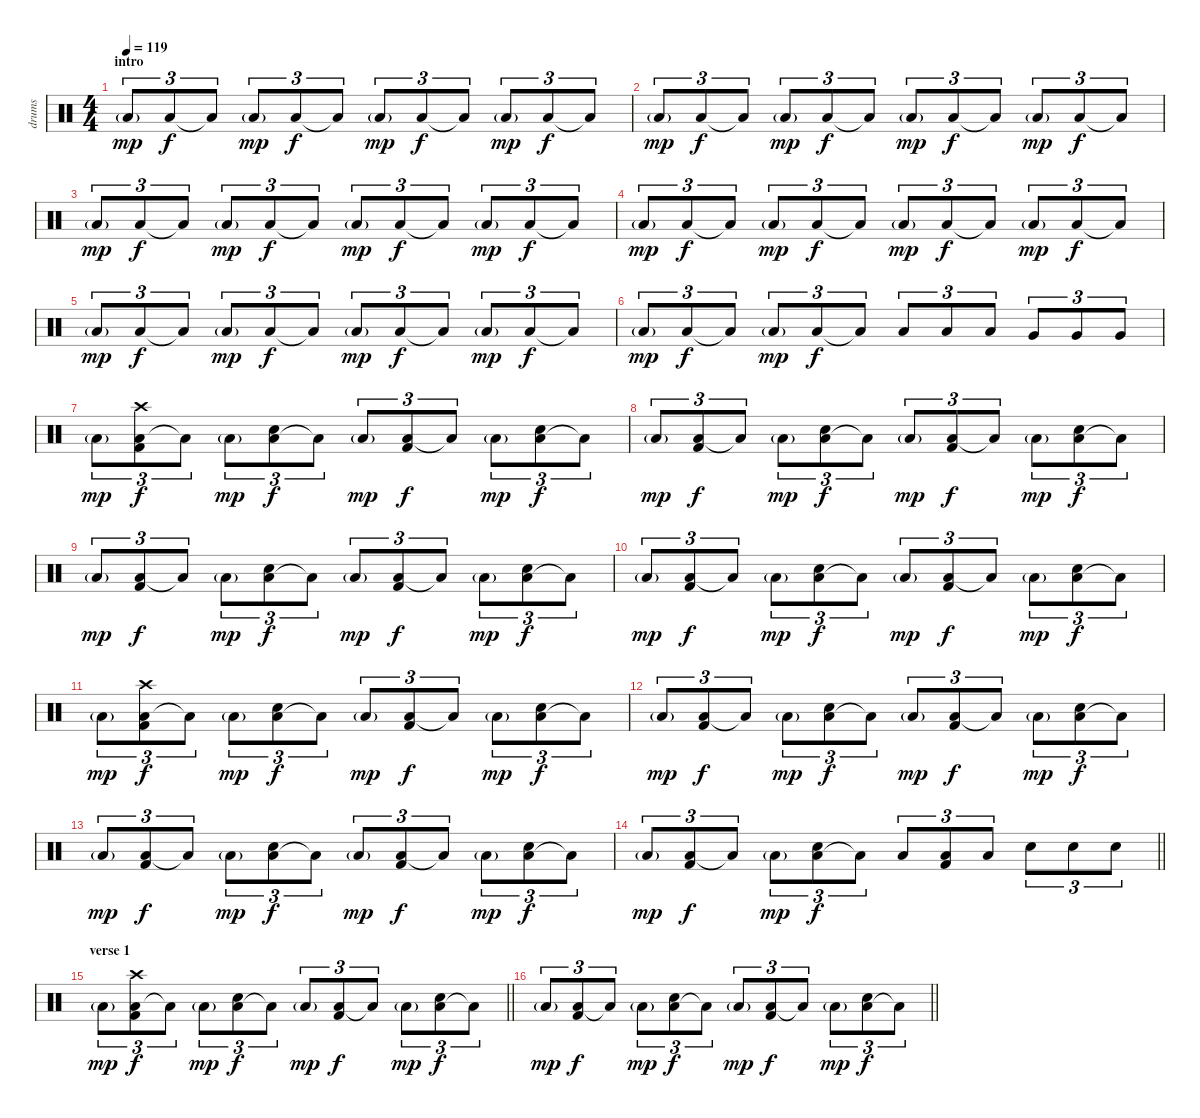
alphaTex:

\track ("drums" "drums") {instrument percussion}
\staff {score}
\articulation defaults
\ts (4 4)
\section ("" "intro")
\tempo 119
\clef neutral
\ks c "Low Floor Tom (hit)"{g}.8{tu (3 2) dy mp} "Low Floor Tom (hit)".8{tu (3 2) dy f} "Low Floor Tom (hit)"{t}.8{tu (3 2)} "Low Floor Tom (hit)"{g}.8{tu (3 2) dy mp} "Low Floor Tom (hit)".8{tu (3 2) dy f} "Low Floor Tom (hit)"{t}.8{tu (3 2)} "Low Floor Tom (hit)"{g}.8{tu (3 2) dy mp} "Low Floor Tom (hit)".8{tu (3 2) dy f} "Low Floor Tom (hit)"{t}.8{tu (3 2)} "Low Floor Tom (hit)"{g}.8{tu (3 2) dy mp} "Low Floor Tom (hit)".8{tu (3 2) dy f} "Low Floor Tom (hit)"{t}.8{tu (3 2)}
|
"Low Floor Tom (hit)"{g}.8{tu (3 2) dy mp} "Low Floor Tom (hit)".8{tu (3 2) dy f} "Low Floor Tom (hit)"{t}.8{tu (3 2)} "Low Floor Tom (hit)"{g}.8{tu (3 2) dy mp} "Low Floor Tom (hit)".8{tu (3 2) dy f} "Low Floor Tom (hit)"{t}.8{tu (3 2)} "Low Floor Tom (hit)"{g}.8{tu (3 2) dy mp} "Low Floor Tom (hit)".8{tu (3 2) dy f} "Low Floor Tom (hit)"{t}.8{tu (3 2)} "Low Floor Tom (hit)"{g}.8{tu (3 2) dy mp} "Low Floor Tom (hit)".8{tu (3 2) dy f} "Low Floor Tom (hit)"{t}.8{tu (3 2)} |
"Low Floor Tom (hit)"{g}.8{tu (3 2) dy mp} "Low Floor Tom (hit)".8{tu (3 2) dy f} "Low Floor Tom (hit)"{t}.8{tu (3 2)} "Low Floor Tom (hit)"{g}.8{tu (3 2) dy mp} "Low Floor Tom (hit)".8{tu (3 2) dy f} "Low Floor Tom (hit)"{t}.8{tu (3 2)} "Low Floor Tom (hit)"{g}.8{tu (3 2) dy mp} "Low Floor Tom (hit)".8{tu (3 2) dy f} "Low Floor Tom (hit)"{t}.8{tu (3 2)} "Low Floor Tom (hit)"{g}.8{tu (3 2) dy mp} "Low Floor Tom (hit)".8{tu (3 2) dy f} "Low Floor Tom (hit)"{t}.8{tu (3 2)} |
"Low Floor Tom (hit)"{g}.8{tu (3 2) dy mp} "Low Floor Tom (hit)".8{tu (3 2) dy f} "Low Floor Tom (hit)"{t}.8{tu (3 2)} "Low Floor Tom (hit)"{g}.8{tu (3 2) dy mp} "Low Floor Tom (hit)".8{tu (3 2) dy f} "Low Floor Tom (hit)"{t}.8{tu (3 2)} "Low Floor Tom (hit)"{g}.8{tu (3 2) dy mp} "Low Floor Tom (hit)".8{tu (3 2) dy f} "Low Floor Tom (hit)"{t}.8{tu (3 2)} "Low Floor Tom (hit)"{g}.8{tu (3 2) dy mp} "Low Floor Tom (hit)".8{tu (3 2) dy f} "Low Floor Tom (hit)"{t}.8{tu (3 2)} |
"Low Floor Tom (hit)"{g}.8{tu (3 2) dy mp} "Low Floor Tom (hit)".8{tu (3 2) dy f} "Low Floor Tom (hit)"{t}.8{tu (3 2)} "Low Floor Tom (hit)"{g}.8{tu (3 2) dy mp} "Low Floor Tom (hit)".8{tu (3 2) dy f} "Low Floor Tom (hit)"{t}.8{tu (3 2)} "Low Floor Tom (hit)"{g}.8{tu (3 2) dy mp} "Low Floor Tom (hit)".8{tu (3 2) dy f} "Low Floor Tom (hit)"{t}.8{tu (3 2)} "Low Floor Tom (hit)"{g}.8{tu (3 2) dy mp} "Low Floor Tom (hit)".8{tu (3 2) dy f} "Low Floor Tom (hit)"{t}.8{tu (3 2)} |
"Low Floor Tom (hit)"{g}.8{tu (3 2) dy mp} "Low Floor Tom (hit)".8{tu (3 2) dy f} "Low Floor Tom (hit)"{t}.8{tu (3 2)} "Low Floor Tom (hit)"{g}.8{tu (3 2) dy mp} "Low Floor Tom (hit)".8{tu (3 2) dy f} "Low Floor Tom (hit)"{t}.8{tu (3 2)} "Low Floor Tom (hit)".8{tu (3 2)} "Low Floor Tom (hit)".8{tu (3 2)} "Low Floor Tom (hit)".8{tu (3 2)} "Very Low Tom (hit)".8{tu (3 2)} "Very Low Tom (hit)".8{tu (3 2)} "Very Low Tom (hit)".8{tu (3 2)} |
"Low Floor Tom (hit)"{g}.8{tu (3 2) dy mp} ("Low Floor Tom (hit)" "Kick (hit) 2" "Crash high (hit)").8{tu (3 2) dy f} "Low Floor Tom (hit)"{t}.8{tu (3 2)} "Low Floor Tom (hit)"{g}.8{tu (3 2) dy mp} ("Low Floor Tom (hit)" "Electric Snare (hit)").8{tu (3 2) dy f} "Low Floor Tom (hit)"{t}.8{tu (3 2)} "Low Floor Tom (hit)"{g}.8{tu (3 2) dy mp} ("Low Floor Tom (hit)" "Kick (hit) 2").8{tu (3 2) dy f} "Low Floor Tom (hit)"{t}.8{tu (3 2)} "Low Floor Tom (hit)"{g}.8{tu (3 2) dy mp} ("Low Floor Tom (hit)" "Electric Snare (hit)").8{tu (3 2) dy f} "Low Floor Tom (hit)"{t}.8{tu (3 2)} |
"Low Floor Tom (hit)"{g}.8{tu (3 2) dy mp} ("Low Floor Tom (hit)" "Kick (hit) 2").8{tu (3 2) dy f} "Low Floor Tom (hit)"{t}.8{tu (3 2)} "Low Floor Tom (hit)"{g}.8{tu (3 2) dy mp} ("Low Floor Tom (hit)" "Electric Snare (hit)").8{tu (3 2) dy f} "Low Floor Tom (hit)"{t}.8{tu (3 2)} "Low Floor Tom (hit)"{g}.8{tu (3 2) dy mp} ("Low Floor Tom (hit)" "Kick (hit) 2").8{tu (3 2) dy f} "Low Floor Tom (hit)"{t}.8{tu (3 2)} "Low Floor Tom (hit)"{g}.8{tu (3 2) dy mp} ("Low Floor Tom (hit)" "Electric Snare (hit)").8{tu (3 2) dy f} "Low Floor Tom (hit)"{t}.8{tu (3 2)} |
"Low Floor Tom (hit)"{g}.8{tu (3 2) dy mp} ("Low Floor Tom (hit)" "Kick (hit) 2").8{tu (3 2) dy f} "Low Floor Tom (hit)"{t}.8{tu (3 2)} "Low Floor Tom (hit)"{g}.8{tu (3 2) dy mp} ("Low Floor Tom (hit)" "Electric Snare (hit)").8{tu (3 2) dy f} "Low Floor Tom (hit)"{t}.8{tu (3 2)} "Low Floor Tom (hit)"{g}.8{tu (3 2) dy mp} ("Low Floor Tom (hit)" "Kick (hit) 2").8{tu (3 2) dy f} "Low Floor Tom (hit)"{t}.8{tu (3 2)} "Low Floor Tom (hit)"{g}.8{tu (3 2) dy mp} ("Low Floor Tom (hit)" "Electric Snare (hit)").8{tu (3 2) dy f} "Low Floor Tom (hit)"{t}.8{tu (3 2)} |
"Low Floor Tom (hit)"{g}.8{tu (3 2) dy mp} ("Low Floor Tom (hit)" "Kick (hit) 2").8{tu (3 2) dy f} "Low Floor Tom (hit)"{t}.8{tu (3 2)} "Low Floor Tom (hit)"{g}.8{tu (3 2) dy mp} ("Low Floor Tom (hit)" "Electric Snare (hit)").8{tu (3 2) dy f} "Low Floor Tom (hit)"{t}.8{tu (3 2)} "Low Floor Tom (hit)"{g}.8{tu (3 2) dy mp} ("Low Floor Tom (hit)" "Kick (hit) 2").8{tu (3 2) dy f} "Low Floor Tom (hit)"{t}.8{tu (3 2)} "Low Floor Tom (hit)"{g}.8{tu (3 2) dy mp} ("Low Floor Tom (hit)" "Electric Snare (hit)").8{tu (3 2) dy f} "Low Floor Tom (hit)"{t}.8{tu (3 2)} |
"Low Floor Tom (hit)"{g}.8{tu (3 2) dy mp} ("Low Floor Tom (hit)" "Kick (hit) 2" "Crash high (hit)").8{tu (3 2) dy f} "Low Floor Tom (hit)"{t}.8{tu (3 2)} "Low Floor Tom (hit)"{g}.8{tu (3 2) dy mp} ("Low Floor Tom (hit)" "Electric Snare (hit)").8{tu (3 2) dy f} "Low Floor Tom (hit)"{t}.8{tu (3 2)} "Low Floor Tom (hit)"{g}.8{tu (3 2) dy mp} ("Low Floor Tom (hit)" "Kick (hit) 2").8{tu (3 2) dy f} "Low Floor Tom (hit)"{t}.8{tu (3 2)} "Low Floor Tom (hit)"{g}.8{tu (3 2) dy mp} ("Low Floor Tom (hit)" "Electric Snare (hit)").8{tu (3 2) dy f} "Low Floor Tom (hit)"{t}.8{tu (3 2)} |
"Low Floor Tom (hit)"{g}.8{tu (3 2) dy mp} ("Low Floor Tom (hit)" "Kick (hit) 2").8{tu (3 2) dy f} "Low Floor Tom (hit)"{t}.8{tu (3 2)} "Low Floor Tom (hit)"{g}.8{tu (3 2) dy mp} ("Low Floor Tom (hit)" "Electric Snare (hit)").8{tu (3 2) dy f} "Low Floor Tom (hit)"{t}.8{tu (3 2)} "Low Floor Tom (hit)"{g}.8{tu (3 2) dy mp} ("Low Floor Tom (hit)" "Kick (hit) 2").8{tu (3 2) dy f} "Low Floor Tom (hit)"{t}.8{tu (3 2)} "Low Floor Tom (hit)"{g}.8{tu (3 2) dy mp} ("Low Floor Tom (hit)" "Electric Snare (hit)").8{tu (3 2) dy f} "Low Floor Tom (hit)"{t}.8{tu (3 2)} |
"Low Floor Tom (hit)"{g}.8{tu (3 2) dy mp} ("Low Floor Tom (hit)" "Kick (hit) 2").8{tu (3 2) dy f} "Low Floor Tom (hit)"{t}.8{tu (3 2)} "Low Floor Tom (hit)"{g}.8{tu (3 2) dy mp} ("Low Floor Tom (hit)" "Electric Snare (hit)").8{tu (3 2) dy f} "Low Floor Tom (hit)"{t}.8{tu (3 2)} "Low Floor Tom (hit)"{g}.8{tu (3 2) dy mp} ("Low Floor Tom (hit)" "Kick (hit) 2").8{tu (3 2) dy f} "Low Floor Tom (hit)"{t}.8{tu (3 2)} "Low Floor Tom (hit)"{g}.8{tu (3 2) dy mp} ("Low Floor Tom (hit)" "Electric Snare (hit)").8{tu (3 2) dy f} "Low Floor Tom (hit)"{t}.8{tu (3 2)} |
\barLineRight lightlight "Low Floor Tom (hit)"{g}.8{tu (3 2) dy mp}
("Low Floor Tom (hit)" "Kick (hit) 2").8{tu (3 2) dy f} "Low Floor Tom (hit)"{t}.8{tu (3 2)} "Low Floor Tom (hit)"{g}.8{tu (3 2) dy mp} ("Low Floor Tom (hit)" "Electric Snare (hit)").8{tu (3 2) dy f} "Low Floor Tom (hit)"{t}.8{tu (3 2)} "Low Floor Tom (hit)".8{tu (3 2)} ("Low Floor Tom (hit)" "Kick (hit) 2").8{tu (3 2)} "Low Floor Tom (hit)".8{tu (3 2)} "Electric Snare (hit)".8{tu (3 2)} "Electric Snare (hit)".8{tu (3 2)} "Electric Snare (hit)".8{tu (3 2)} |
\section ("" "verse 1")
\barLineRight lightlight "Low Floor Tom (hit)"{g}.8{tu (3 2) dy mp}
("Low Floor Tom (hit)" "Kick (hit) 2" "Crash high (hit)").8{tu (3 2) dy f} "Low Floor Tom (hit)"{t}.8{tu (3 2)} "Low Floor Tom (hit)"{g}.8{tu (3 2) dy mp} ("Low Floor Tom (hit)" "Electric Snare (hit)").8{tu (3 2) dy f} "Low Floor Tom (hit)"{t}.8{tu (3 2)} "Low Floor Tom (hit)"{g}.8{tu (3 2) dy mp} ("Low Floor Tom (hit)" "Kick (hit) 2").8{tu (3 2) dy f} "Low Floor Tom (hit)"{t}.8{tu (3 2)} "Low Floor Tom (hit)"{g}.8{tu (3 2) dy mp} ("Low Floor Tom (hit)" "Electric Snare (hit)").8{tu (3 2) dy f} "Low Floor Tom (hit)"{t}.8{tu (3 2)} |
\barLineRight lightlight "Low Floor Tom (hit)"{g}.8{tu (3 2) dy mp}
("Low Floor Tom (hit)" "Kick (hit) 2").8{tu (3 2) dy f} "Low Floor Tom (hit)"{t}.8{tu (3 2)} "Low Floor Tom (hit)"{g}.8{tu (3 2) dy mp} ("Low Floor Tom (hit)" "Electric Snare (hit)").8{tu (3 2) dy f} "Low Floor Tom (hit)"{t}.8{tu (3 2)} "Low Floor Tom (hit)"{g}.8{tu (3 2) dy mp} ("Low Floor Tom (hit)" "Kick (hit) 2").8{tu (3 2) dy f} "Low Floor Tom (hit)"{t}.8{tu (3 2)} "Low Floor Tom (hit)"{g}.8{tu (3 2) dy mp} ("Low Floor Tom (hit)" "Electric Snare (hit)").8{tu (3 2) dy f} "Low Floor Tom (hit)"{t}.8{tu (3 2)}
